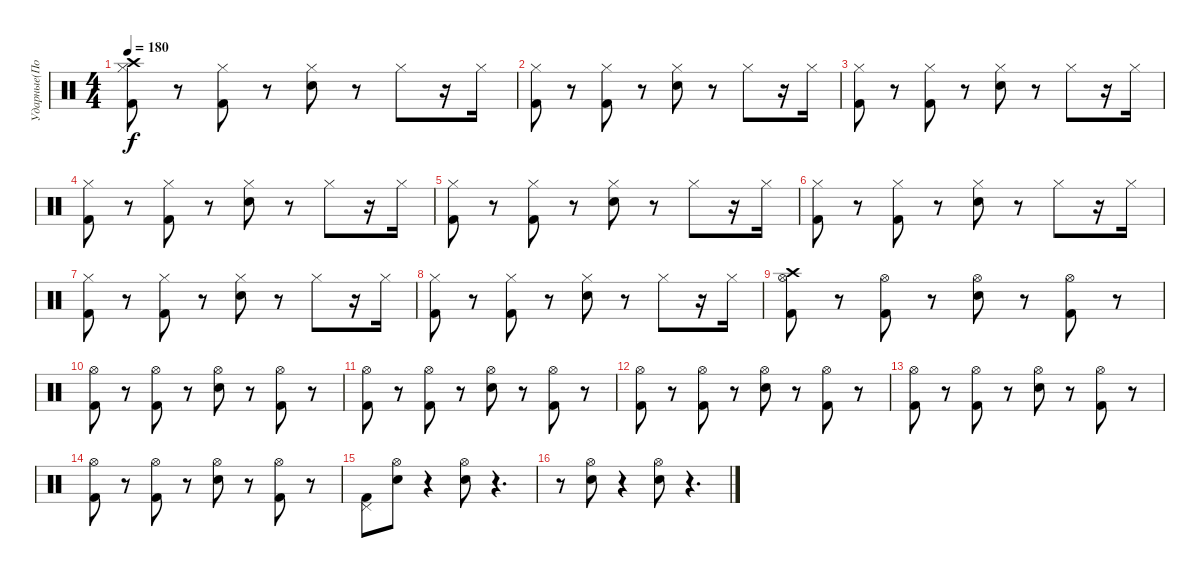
\track ("Ударные(Потапкин)" "Ударные(По") {instrument percussion}
\staff {score}
\articulation defaults
\ts (4 4)
\tempo 180
\clef neutral
\ks c
("Crash high (hit)" "Kick (hit) 2" "Hi-Hat (closed)").8{dy f} r.8 ("Kick (hit) 2" "Hi-Hat (closed)").8 r.8 ("Electric Snare (hit)" "Hi-Hat (closed)").8 r.8 "Hi-Hat (closed)".8 r.16 "Hi-Hat (closed)".16 |
("Kick (hit) 2" "Hi-Hat (closed)").8 r.8 ("Kick (hit) 2" "Hi-Hat (closed)").8 r.8 ("Electric Snare (hit)" "Hi-Hat (closed)").8 r.8 "Hi-Hat (closed)".8 r.16 "Hi-Hat (closed)".16 |
("Kick (hit) 2" "Hi-Hat (closed)").8 r.8 ("Kick (hit) 2" "Hi-Hat (closed)").8 r.8 ("Electric Snare (hit)" "Hi-Hat (closed)").8 r.8 "Hi-Hat (closed)".8 r.16 "Hi-Hat (closed)".16 |
("Kick (hit) 2" "Hi-Hat (closed)").8 r.8 ("Kick (hit) 2" "Hi-Hat (closed)").8 r.8 ("Electric Snare (hit)" "Hi-Hat (closed)").8 r.8 "Hi-Hat (closed)".8 r.16 "Hi-Hat (closed)".16 |
("Kick (hit) 2" "Hi-Hat (closed)").8 r.8 ("Kick (hit) 2" "Hi-Hat (closed)").8 r.8 ("Electric Snare (hit)" "Hi-Hat (closed)").8 r.8 "Hi-Hat (closed)".8 r.16 "Hi-Hat (closed)".16 |
("Kick (hit) 2" "Hi-Hat (closed)").8 r.8 ("Kick (hit) 2" "Hi-Hat (closed)").8 r.8 ("Electric Snare (hit)" "Hi-Hat (closed)").8 r.8 "Hi-Hat (closed)".8 r.16 "Hi-Hat (closed)".16 |
("Kick (hit) 2" "Hi-Hat (closed)").8 r.8 ("Kick (hit) 2" "Hi-Hat (closed)").8 r.8 ("Electric Snare (hit)" "Hi-Hat (closed)").8 r.8 "Hi-Hat (closed)".8 r.16 "Hi-Hat (closed)".16 |
("Kick (hit) 2" "Hi-Hat (closed)").8 r.8 ("Kick (hit) 2" "Hi-Hat (closed)").8 r.8 ("Electric Snare (hit)" "Hi-Hat (closed)").8 r.8 "Hi-Hat (closed)".8 r.16 "Hi-Hat (closed)".16 |
("Crash high (hit)" "Hi-Hat (open)" "Kick (hit) 2").8 r.8 ("Hi-Hat (open)" "Kick (hit) 2").8 r.8 ("Hi-Hat (open)" "Electric Snare (hit)").8 r.8 ("Hi-Hat (open)" "Kick (hit) 2").8 r.8 |
("Hi-Hat (open)" "Kick (hit) 2").8 r.8 ("Hi-Hat (open)" "Kick (hit) 2").8 r.8 ("Hi-Hat (open)" "Electric Snare (hit)").8 r.8 ("Hi-Hat (open)" "Kick (hit) 2").8 r.8 |
("Hi-Hat (open)" "Kick (hit) 2").8 r.8 ("Hi-Hat (open)" "Kick (hit) 2").8 r.8 ("Hi-Hat (open)" "Electric Snare (hit)").8 r.8 ("Hi-Hat (open)" "Kick (hit) 2").8 r.8 |
("Hi-Hat (open)" "Kick (hit) 2").8 r.8 ("Hi-Hat (open)" "Kick (hit) 2").8 r.8 ("Hi-Hat (open)" "Electric Snare (hit)").8 r.8 ("Hi-Hat (open)" "Kick (hit) 2").8 r.8 |
("Hi-Hat (open)" "Kick (hit) 2").8 r.8 ("Hi-Hat (open)" "Kick (hit) 2").8 r.8 ("Hi-Hat (open)" "Electric Snare (hit)").8 r.8 ("Hi-Hat (open)" "Kick (hit) 2").8 r.8 |
("Hi-Hat (open)" "Kick (hit) 2").8 r.8 ("Hi-Hat (open)" "Kick (hit) 2").8 r.8 ("Hi-Hat (open)" "Electric Snare (hit)").8 r.8 ("Hi-Hat (open)" "Kick (hit) 2").8 r.8 |
("Kick (hit) 2" "Pedal Hi-Hat (hit)").8 ("Electric Snare (hit)" "Hi-Hat (open)").8 r.4 ("Hi-Hat (open)" "Electric Snare (hit)").8 r.4{d} |
r.8 ("Electric Snare (hit)" "Hi-Hat (open)").8 r.4 ("Electric Snare (hit)" "Hi-Hat (open)").8 r.4{d}
